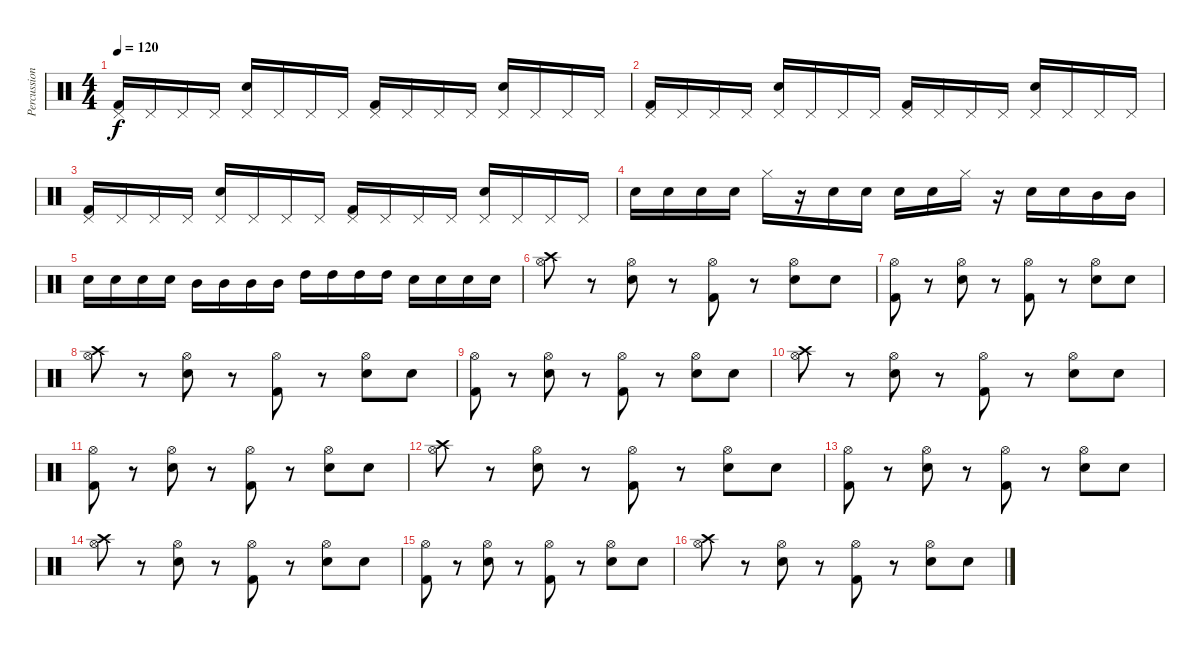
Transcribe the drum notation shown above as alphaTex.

\track ("Percussion" "Percussion") {instrument percussion}
\staff {score}
\articulation defaults
\ts (4 4)
\tempo 120
\clef neutral
\ks c
("Pedal Hi-Hat (hit)" "Kick (hit) 2").16{dy f} "Pedal Hi-Hat (hit)".16 "Pedal Hi-Hat (hit)".16 "Pedal Hi-Hat (hit)".16 ("Pedal Hi-Hat (hit)" "Electric Snare (hit)").16 "Pedal Hi-Hat (hit)".16 "Pedal Hi-Hat (hit)".16 "Pedal Hi-Hat (hit)".16 ("Pedal Hi-Hat (hit)" "Kick (hit) 2").16 "Pedal Hi-Hat (hit)".16 "Pedal Hi-Hat (hit)".16 "Pedal Hi-Hat (hit)".16 ("Pedal Hi-Hat (hit)" "Electric Snare (hit)").16 "Pedal Hi-Hat (hit)".16 "Pedal Hi-Hat (hit)".16 "Pedal Hi-Hat (hit)".16 |
("Pedal Hi-Hat (hit)" "Kick (hit) 2").16 "Pedal Hi-Hat (hit)".16 "Pedal Hi-Hat (hit)".16 "Pedal Hi-Hat (hit)".16 ("Pedal Hi-Hat (hit)" "Electric Snare (hit)").16 "Pedal Hi-Hat (hit)".16 "Pedal Hi-Hat (hit)".16 "Pedal Hi-Hat (hit)".16 ("Pedal Hi-Hat (hit)" "Kick (hit) 2").16 "Pedal Hi-Hat (hit)".16 "Pedal Hi-Hat (hit)".16 "Pedal Hi-Hat (hit)".16 ("Pedal Hi-Hat (hit)" "Electric Snare (hit)").16 "Pedal Hi-Hat (hit)".16 "Pedal Hi-Hat (hit)".16 "Pedal Hi-Hat (hit)".16 |
("Pedal Hi-Hat (hit)" "Kick (hit) 2").16 "Pedal Hi-Hat (hit)".16 "Pedal Hi-Hat (hit)".16 "Pedal Hi-Hat (hit)".16 ("Pedal Hi-Hat (hit)" "Electric Snare (hit)").16 "Pedal Hi-Hat (hit)".16 "Pedal Hi-Hat (hit)".16 "Pedal Hi-Hat (hit)".16 ("Pedal Hi-Hat (hit)" "Kick (hit) 2").16 "Pedal Hi-Hat (hit)".16 "Pedal Hi-Hat (hit)".16 "Pedal Hi-Hat (hit)".16 ("Pedal Hi-Hat (hit)" "Electric Snare (hit)").16 "Pedal Hi-Hat (hit)".16 "Pedal Hi-Hat (hit)".16 "Pedal Hi-Hat (hit)".16 |
"Snare (hit) 2".16 "Snare (hit) 2".16 "Snare (hit) 2".16 "Snare (hit) 2".16 "Hi-Hat (closed)".16 r.16 "Snare (hit) 2".16 "Snare (hit) 2".16 "Snare (hit) 2".16 "Snare (hit) 2".16 "Hi-Hat (closed)".16 r.16 "Snare (hit) 2".16 "Snare (hit) 2".16 "Mid Tom (hit)".16 "Mid Tom (hit)".16 |
"Snare (hit) 2".16 "Snare (hit) 2".16 "Snare (hit) 2".16 "Snare (hit) 2".16 "Mid Tom (hit)".16 "Mid Tom (hit)".16 "Mid Tom (hit)".16 "Mid Tom (hit)".16 "High Tom (hit)".16 "High Tom (hit)".16 "High Tom (hit)".16 "High Tom (hit)".16 "Snare (hit) 2".16 "Snare (hit) 2".16 "Snare (hit) 2".16 "Snare (hit) 2".16 |
("Crash high (hit)" "Hi-Hat (open)").8 r.8 ("Electric Snare (hit)" "Hi-Hat (open)").8 r.8 ("Kick (hit) 2" "Hi-Hat (open)").8 r.8 ("Electric Snare (hit)" "Hi-Hat (open)").8 "Snare (hit)".8 |
("Kick (hit) 2" "Hi-Hat (open)").8 r.8 ("Electric Snare (hit)" "Hi-Hat (open)").8 r.8 ("Kick (hit) 2" "Hi-Hat (open)").8 r.8 ("Electric Snare (hit)" "Hi-Hat (open)").8 "Snare (hit)".8 |
("Crash high (hit)" "Hi-Hat (open)").8 r.8 ("Electric Snare (hit)" "Hi-Hat (open)").8 r.8 ("Kick (hit) 2" "Hi-Hat (open)").8 r.8 ("Electric Snare (hit)" "Hi-Hat (open)").8 "Snare (hit)".8 |
("Kick (hit) 2" "Hi-Hat (open)").8 r.8 ("Electric Snare (hit)" "Hi-Hat (open)").8 r.8 ("Kick (hit) 2" "Hi-Hat (open)").8 r.8 ("Electric Snare (hit)" "Hi-Hat (open)").8 "Snare (hit)".8 |
("Crash high (hit)" "Hi-Hat (open)").8 r.8 ("Electric Snare (hit)" "Hi-Hat (open)").8 r.8 ("Kick (hit) 2" "Hi-Hat (open)").8 r.8 ("Electric Snare (hit)" "Hi-Hat (open)").8 "Snare (hit)".8 |
("Kick (hit) 2" "Hi-Hat (open)").8 r.8 ("Electric Snare (hit)" "Hi-Hat (open)").8 r.8 ("Kick (hit) 2" "Hi-Hat (open)").8 r.8 ("Electric Snare (hit)" "Hi-Hat (open)").8 "Snare (hit)".8 |
("Crash high (hit)" "Hi-Hat (open)").8 r.8 ("Electric Snare (hit)" "Hi-Hat (open)").8 r.8 ("Kick (hit) 2" "Hi-Hat (open)").8 r.8 ("Electric Snare (hit)" "Hi-Hat (open)").8 "Snare (hit)".8 |
("Kick (hit) 2" "Hi-Hat (open)").8 r.8 ("Electric Snare (hit)" "Hi-Hat (open)").8 r.8 ("Kick (hit) 2" "Hi-Hat (open)").8 r.8 ("Electric Snare (hit)" "Hi-Hat (open)").8 "Snare (hit)".8 |
("Crash high (hit)" "Hi-Hat (open)").8 r.8 ("Electric Snare (hit)" "Hi-Hat (open)").8 r.8 ("Kick (hit) 2" "Hi-Hat (open)").8 r.8 ("Electric Snare (hit)" "Hi-Hat (open)").8 "Snare (hit)".8 |
("Kick (hit) 2" "Hi-Hat (open)").8 r.8 ("Electric Snare (hit)" "Hi-Hat (open)").8 r.8 ("Kick (hit) 2" "Hi-Hat (open)").8 r.8 ("Electric Snare (hit)" "Hi-Hat (open)").8 "Snare (hit)".8 |
("Crash high (hit)" "Hi-Hat (open)").8 r.8 ("Electric Snare (hit)" "Hi-Hat (open)").8 r.8 ("Kick (hit) 2" "Hi-Hat (open)").8 r.8 ("Electric Snare (hit)" "Hi-Hat (open)").8 "Snare (hit)".8
